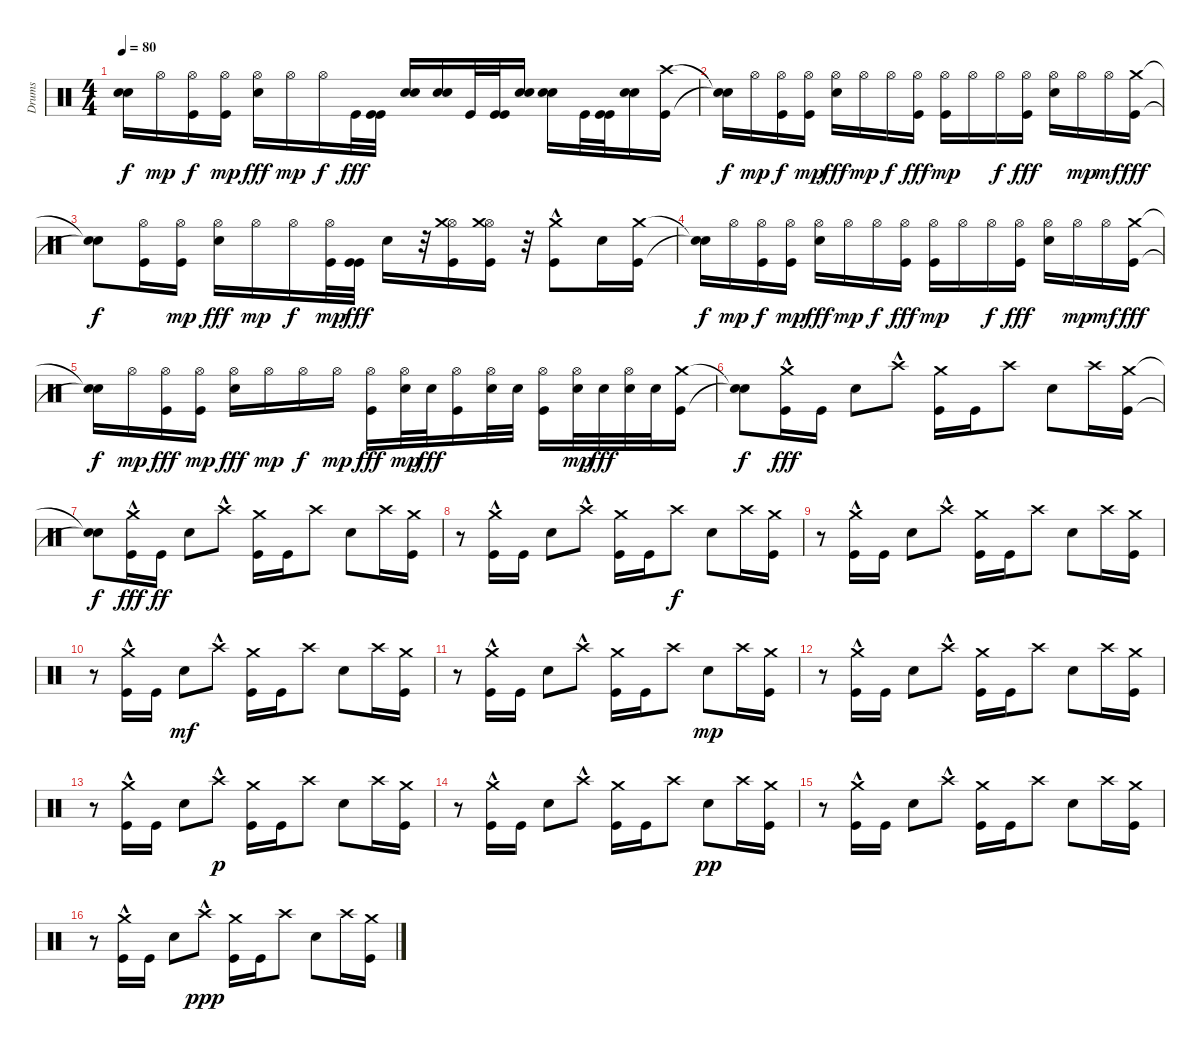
\track ("Drums" "Drums") {instrument percussion}
\staff {score}
\articulation defaults
\ts (4 4)
\tempo 80
\clef neutral
\ks c
("Snare (hit)"{t} "Snare (hit)"{t}).16{dy f} "Hi-Hat (open)".16{dy mp} ("Hi-Hat (open)" "Kick (hit)").16{dy f} ("Hi-Hat (open)" "Kick (hit)").16{dy mp} ("Hi-Hat (open)" "Electric Snare (hit)").16{dy fff} "Hi-Hat (open)".16{dy mp} "Hi-Hat (open)".16{dy f} "Kick (hit)".32{dy fff} ("Kick (hit)" "Kick (hit)").32 ("Electric Snare (hit)" "Electric Snare (hit)").16 ("Electric Snare (hit)" "Electric Snare (hit)").16 "Kick (hit)".32 ("Kick (hit)" "Kick (hit)").32 ("Electric Snare (hit)" "Electric Snare (hit)").16 ("Electric Snare (hit)" "Electric Snare (hit)").16 "Kick (hit)".32 ("Kick (hit)" "Kick (hit)").32 ("Electric Snare (hit)" "Electric Snare (hit)").16 ("Crash high (hit)" "Kick (hit)").16 |
("Snare (hit)"{t} "Snare (hit)"{t}).16{dy f} "Hi-Hat (open)".16{dy mp} ("Hi-Hat (open)" "Kick (hit)").16{dy f} ("Hi-Hat (open)" "Kick (hit)").16{dy mp} ("Hi-Hat (open)" "Electric Snare (hit)").16{dy fff} "Hi-Hat (open)".16{dy mp} "Hi-Hat (open)".16{dy f} ("Hi-Hat (open)" "Kick (hit)").16{dy fff} ("Kick (hit)" "Hi-Hat (open)").16{dy mp} "Hi-Hat (open)".16 "Hi-Hat (open)".16{dy f} ("Hi-Hat (open)" "Kick (hit)").16{dy fff} ("Electric Snare (hit)" "Hi-Hat (open)").16 "Hi-Hat (open)".16{dy mp} "Hi-Hat (open)".16{dy mf} ("Kick (hit)" "Crash medium (hit)").16{dy fff} |
("Snare (hit)"{t} "Snare (hit)"{t}).8{dy f} ("Hi-Hat (open)" "Kick (hit)").16 ("Hi-Hat (open)" "Kick (hit)").16{dy mp} ("Hi-Hat (open)" "Electric Snare (hit)").16{dy fff} "Hi-Hat (open)".16{dy mp} "Hi-Hat (open)".16{dy f} ("Kick (hit)" "Hi-Hat (open)").32{dy mp} ("Kick (hit)" "Kick (hit)").32{dy fff} "Electric Snare (hit)".16 r.32 ("Hi-Hat (open)" "Crash medium (hit)" "Kick (hit)").16 ("Hi-Hat (open)" "Crash medium (hit)" "Kick (hit)").16 r.32 ("Crash medium (hit)"{hac} "Kick (hit)"{hac}).8 "Electric Snare (hit)".16 ("Crash medium (hit)" "Kick (hit)").16 |
("Snare (hit)"{t} "Snare (hit)"{t}).16{dy f} "Hi-Hat (open)".16{dy mp} ("Kick (hit)" "Hi-Hat (open)").16{dy f} ("Kick (hit)" "Hi-Hat (open)").16{dy mp} ("Electric Snare (hit)" "Hi-Hat (open)").16{dy fff} "Hi-Hat (open)".16{dy mp} "Hi-Hat (open)".16{dy f} ("Hi-Hat (open)" "Kick (hit)").16{dy fff} ("Kick (hit)" "Hi-Hat (open)").16{dy mp} "Hi-Hat (open)".16 "Hi-Hat (open)".16{dy f} ("Hi-Hat (open)" "Kick (hit)").16{dy fff} ("Electric Snare (hit)" "Hi-Hat (open)").16 "Hi-Hat (open)".16{dy mp} "Hi-Hat (open)".16{dy mf} ("Crash medium (hit)" "Kick (hit)").16{dy fff} |
("Snare (hit)"{t} "Snare (hit)"{t}).16{dy f} "Hi-Hat (open)".16{dy mp} ("Kick (hit)" "Hi-Hat (open)").16{dy fff} ("Kick (hit)" "Hi-Hat (open)").16{dy mp} ("Electric Snare (hit)" "Hi-Hat (open)").16{dy fff} "Hi-Hat (open)".16{dy mp} "Hi-Hat (open)".16{dy f} "Hi-Hat (open)".16{dy mp} ("Kick (hit)" "Hi-Hat (open)").16{dy fff} ("Electric Snare (hit)" "Hi-Hat (open)").32{dy mp} "Electric Snare (hit)".32{dy fff} ("Kick (hit)" "Hi-Hat (open)").16 ("Hi-Hat (open)" "Electric Snare (hit)").32 "Electric Snare (hit)".32 ("Kick (hit)" "Hi-Hat (open)").16 ("Electric Snare (hit)" "Hi-Hat (open)").32{dy mp} "Electric Snare (hit)".32{dy fff} ("Electric Snare (hit)" "Hi-Hat (open)").32 "Electric Snare (hit)".32 ("Kick (hit)" "Crash medium (hit)").16 |
("Snare (hit)"{t} "Snare (hit)"{t}).8{dy f} ("Crash medium (hit)"{hac} "Kick (hit)").16{dy fff} "Kick (hit)".16 "Electric Snare (hit)".8 "Crash high (hit)"{hac}.8 ("Crash medium (hit)" "Kick (hit)").16 "Kick (hit)".16 "Crash high (hit)".8 "Electric Snare (hit)".8 "Crash high (hit)".16 ("Kick (hit)" "Crash medium (hit)").16 |
("Snare (hit)"{t} "Snare (hit)"{t}).8{dy f} ("Crash medium (hit)"{hac} "Kick (hit)").16{dy fff} "Kick (hit)".16{dy ff} "Electric Snare (hit)".8 "Crash high (hit)"{hac}.8 ("Crash medium (hit)" "Kick (hit)").16 "Kick (hit)".16 "Crash high (hit)".8 "Electric Snare (hit)".8 "Crash high (hit)".16 ("Kick (hit)" "Crash medium (hit)").16 |
r.8 ("Crash medium (hit)"{hac} "Kick (hit)").16 "Kick (hit)".16 "Electric Snare (hit)".8 "Crash high (hit)"{hac}.8 ("Crash medium (hit)" "Kick (hit)").16 "Kick (hit)".16 "Crash high (hit)".8{dy f} "Electric Snare (hit)".8 "Crash high (hit)".16 ("Kick (hit)" "Crash medium (hit)").16 |
r.8 ("Crash medium (hit)"{hac} "Kick (hit)").16 "Kick (hit)".16 "Electric Snare (hit)".8 "Crash high (hit)"{hac}.8 ("Crash medium (hit)" "Kick (hit)").16 "Kick (hit)".16 "Crash high (hit)".8 "Electric Snare (hit)".8 "Crash high (hit)".16 ("Kick (hit)" "Crash medium (hit)").16 |
r.8 ("Crash medium (hit)"{hac} "Kick (hit)").16 "Kick (hit)".16 "Electric Snare (hit)".8{dy mf} "Crash high (hit)"{hac}.8 ("Crash medium (hit)" "Kick (hit)").16 "Kick (hit)".16 "Crash high (hit)".8 "Electric Snare (hit)".8 "Crash high (hit)".16 ("Kick (hit)" "Crash medium (hit)").16 |
r.8 ("Crash medium (hit)"{hac} "Kick (hit)").16 "Kick (hit)".16 "Electric Snare (hit)".8 "Crash high (hit)"{hac}.8 ("Crash medium (hit)" "Kick (hit)").16 "Kick (hit)".16 "Crash high (hit)".8 "Electric Snare (hit)".8{dy mp} "Crash high (hit)".16 ("Kick (hit)" "Crash medium (hit)").16 |
r.8 ("Crash medium (hit)"{hac} "Kick (hit)").16 "Kick (hit)".16 "Electric Snare (hit)".8 "Crash high (hit)"{hac}.8 ("Crash medium (hit)" "Kick (hit)").16 "Kick (hit)".16 "Crash high (hit)".8 "Electric Snare (hit)".8 "Crash high (hit)".16 ("Kick (hit)" "Crash medium (hit)").16 |
r.8 ("Crash medium (hit)"{hac} "Kick (hit)").16 "Kick (hit)".16 "Electric Snare (hit)".8 "Crash high (hit)"{hac}.8{dy p} ("Crash medium (hit)" "Kick (hit)").16 "Kick (hit)".16 "Crash high (hit)".8 "Electric Snare (hit)".8 "Crash high (hit)".16 ("Kick (hit)" "Crash medium (hit)").16 |
r.8 ("Crash medium (hit)"{hac} "Kick (hit)").16 "Kick (hit)".16 "Electric Snare (hit)".8 "Crash high (hit)"{hac}.8 ("Crash medium (hit)" "Kick (hit)").16 "Kick (hit)".16 "Crash high (hit)".8 "Electric Snare (hit)".8{dy pp} "Crash high (hit)".16 ("Kick (hit)" "Crash medium (hit)").16 |
r.8 ("Crash medium (hit)"{hac} "Kick (hit)").16 "Kick (hit)".16 "Electric Snare (hit)".8 "Crash high (hit)"{hac}.8 ("Crash medium (hit)" "Kick (hit)").16 "Kick (hit)".16 "Crash high (hit)".8 "Electric Snare (hit)".8 "Crash high (hit)".16 ("Kick (hit)" "Crash medium (hit)").16 |
r.8 ("Crash medium (hit)"{hac} "Kick (hit)").16 "Kick (hit)".16 "Electric Snare (hit)".8 "Crash high (hit)"{hac}.8{dy ppp} ("Crash medium (hit)" "Kick (hit)").16 "Kick (hit)".16 "Crash high (hit)".8 "Electric Snare (hit)".8 "Crash high (hit)".16 ("Kick (hit)" "Crash medium (hit)").16
